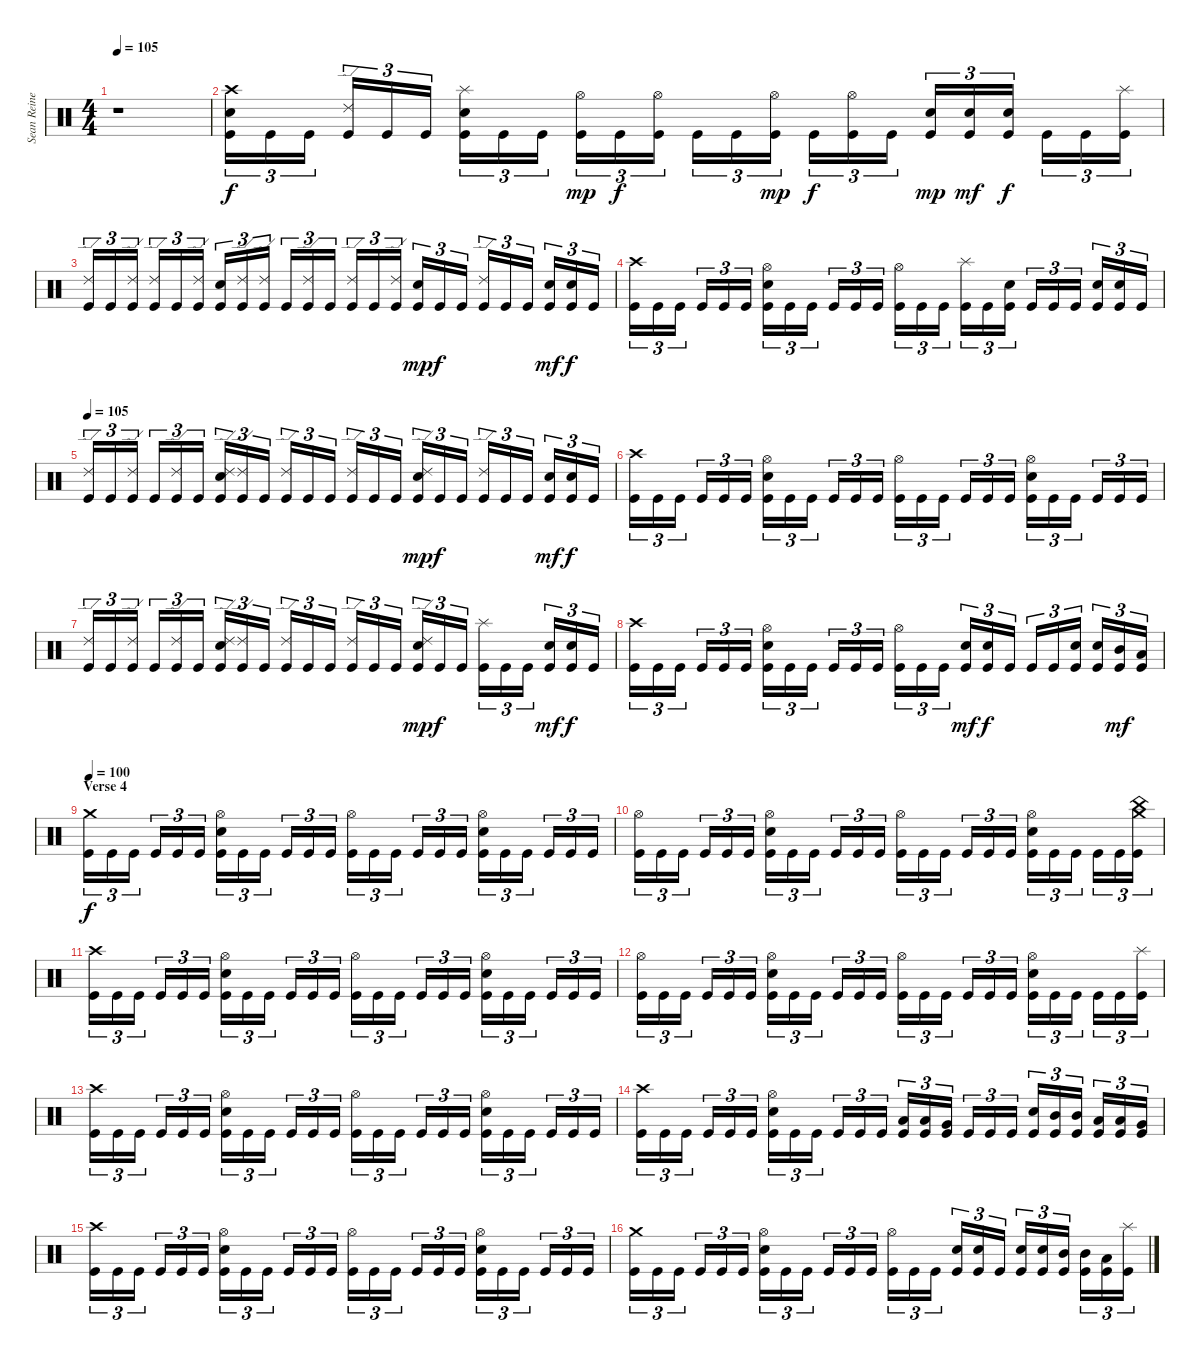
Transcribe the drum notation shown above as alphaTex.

\track ("Sean Reinert " "Sean Reine") {instrument percussion}
\staff {score}
\articulation defaults
\ts (4 4)
\tempo 105
\clef neutral
\ks c
r.1{dy f} |
("Crash high (hit)" "Electric Snare (hit)" "Kick (hit)").16{tu (3 2)} "Kick (hit)".16{tu (3 2)} "Kick (hit)".16{tu (3 2)} ("Ride (edge) 2" "Kick (hit)").16{tu (3 2)} "Kick (hit)".16{tu (3 2)} "Kick (hit)".16{tu (3 2)} ("Splash (hit)" "Electric Snare (hit)" "Kick (hit)").16{tu (3 2)} "Kick (hit)".16{tu (3 2)} "Kick (hit)".16{tu (3 2)} ("Hi-Hat (open)" "Kick (hit)").16{tu (3 2) dy mp} "Kick (hit)".16{tu (3 2) dy f} ("Hi-Hat (open)" "Kick (hit)").16{tu (3 2)} "Kick (hit)".16{tu (3 2)} "Kick (hit)".16{tu (3 2)} ("Hi-Hat (open)" "Kick (hit)").16{tu (3 2) dy mp} "Kick (hit)".16{tu (3 2) dy f} ("Hi-Hat (open)" "Kick (hit)").16{tu (3 2)} "Kick (hit)".16{tu (3 2)} ("Electric Snare (hit)" "Kick (hit)").16{tu (3 2) dy mp} ("Electric Snare (hit)" "Kick (hit)").16{tu (3 2) dy mf} ("Electric Snare (hit)" "Kick (hit)").16{tu (3 2) dy f} "Kick (hit)".16{tu (3 2)} "Kick (hit)".16{tu (3 2)} ("Splash (hit)" "Kick (hit)").16{tu (3 2)} |
("Ride (edge) 2" "Kick (hit)").16{tu (3 2)} "Kick (hit)".16{tu (3 2)} ("Ride (edge) 2" "Kick (hit)").16{tu (3 2)} ("Ride (edge) 2" "Kick (hit)").16{tu (3 2)} "Kick (hit)".16{tu (3 2)} ("Ride (edge) 2" "Kick (hit)").16{tu (3 2)} ("Electric Snare (hit)" "Kick (hit)").16{tu (3 2)} ("Ride (edge) 2" "Kick (hit)").16{tu (3 2)} ("Ride (edge) 2" "Kick (hit)").16{tu (3 2)} "Kick (hit)".16{tu (3 2)} ("Ride (edge) 2" "Kick (hit)").16{tu (3 2)} "Kick (hit)".16{tu (3 2)} ("Ride (edge) 2" "Kick (hit)").16{tu (3 2)} "Kick (hit)".16{tu (3 2)} ("Ride (edge) 2" "Kick (hit)").16{tu (3 2)} ("Electric Snare (hit)" "Kick (hit)").16{tu (3 2) dy mp} "Kick (hit)".16{tu (3 2) dy f} "Kick (hit)".16{tu (3 2)} ("Ride (edge) 2" "Kick (hit)").16{tu (3 2)} "Kick (hit)".16{tu (3 2)} "Kick (hit)".16{tu (3 2)} ("Electric Snare (hit)" "Kick (hit)").16{tu (3 2) dy mf} ("Electric Snare (hit)" "Kick (hit)").16{tu (3 2) dy f} "Kick (hit)".16{tu (3 2)} |
("Crash high (hit)" "Kick (hit)").16{tu (3 2)} "Kick (hit)".16{tu (3 2)} "Kick (hit)".16{tu (3 2)} "Kick (hit)".16{tu (3 2)} "Kick (hit)".16{tu (3 2)} "Kick (hit)".16{tu (3 2)} ("Hi-Hat (open)" "Electric Snare (hit)" "Kick (hit)").16{tu (3 2)} "Kick (hit)".16{tu (3 2)} "Kick (hit)".16{tu (3 2)} "Kick (hit)".16{tu (3 2)} "Kick (hit)".16{tu (3 2)} "Kick (hit)".16{tu (3 2)} ("Hi-Hat (open)" "Kick (hit)").16{tu (3 2)} "Kick (hit)".16{tu (3 2)} "Kick (hit)".16{tu (3 2)} ("Splash (hit)" "Kick (hit)").16{tu (3 2)} "Kick (hit)".16{tu (3 2)} ("Electric Snare (hit)" "Kick (hit)").16{tu (3 2)} "Kick (hit)".16{tu (3 2)} "Kick (hit)".16{tu (3 2)} "Kick (hit)".16{tu (3 2)} ("Electric Snare (hit)" "Kick (hit)").16{tu (3 2)} ("Electric Snare (hit)" "Kick (hit)").16{tu (3 2)} "Kick (hit)".16{tu (3 2)} |
\tempo 105
("Ride (edge) 2" "Kick (hit)").16{tu (3 2)} "Kick (hit)".16{tu (3 2)} ("Ride (edge) 2" "Kick (hit)").16{tu (3 2)} "Kick (hit)".16{tu (3 2)} ("Ride (edge) 2" "Kick (hit)").16{tu (3 2)} "Kick (hit)".16{tu (3 2)} ("Ride (edge) 2" "Electric Snare (hit)" "Kick (hit)").16{tu (3 2)} ("Ride (edge) 2" "Kick (hit)").16{tu (3 2)} "Kick (hit)".16{tu (3 2)} ("Ride (edge) 2" "Kick (hit)").16{tu (3 2)} "Kick (hit)".16{tu (3 2)} "Kick (hit)".16{tu (3 2)} ("Ride (edge) 2" "Kick (hit)").16{tu (3 2)} "Kick (hit)".16{tu (3 2)} "Kick (hit)".16{tu (3 2)} ("Ride (edge) 2" "Electric Snare (hit)" "Kick (hit)").16{tu (3 2) dy mp} "Kick (hit)".16{tu (3 2) dy f} "Kick (hit)".16{tu (3 2)} ("Ride (edge) 2" "Kick (hit)").16{tu (3 2)} "Kick (hit)".16{tu (3 2)} "Kick (hit)".16{tu (3 2)} ("Electric Snare (hit)" "Kick (hit)").16{tu (3 2) dy mf} ("Electric Snare (hit)" "Kick (hit)").16{tu (3 2) dy f} "Kick (hit)".16{tu (3 2)} |
("Crash high (hit)" "Kick (hit)").16{tu (3 2)} "Kick (hit)".16{tu (3 2)} "Kick (hit)".16{tu (3 2)} "Kick (hit)".16{tu (3 2)} "Kick (hit)".16{tu (3 2)} "Kick (hit)".16{tu (3 2)} ("Hi-Hat (open)" "Electric Snare (hit)" "Kick (hit)").16{tu (3 2)} "Kick (hit)".16{tu (3 2)} "Kick (hit)".16{tu (3 2)} "Kick (hit)".16{tu (3 2)} "Kick (hit)".16{tu (3 2)} "Kick (hit)".16{tu (3 2)} ("Hi-Hat (open)" "Kick (hit)").16{tu (3 2)} "Kick (hit)".16{tu (3 2)} "Kick (hit)".16{tu (3 2)} "Kick (hit)".16{tu (3 2)} "Kick (hit)".16{tu (3 2)} "Kick (hit)".16{tu (3 2)} ("Hi-Hat (open)" "Electric Snare (hit)" "Kick (hit)").16{tu (3 2)} "Kick (hit)".16{tu (3 2)} "Kick (hit)".16{tu (3 2)} "Kick (hit)".16{tu (3 2)} "Kick (hit)".16{tu (3 2)} "Kick (hit)".16{tu (3 2)} |
("Ride (edge) 2" "Kick (hit)").16{tu (3 2)} "Kick (hit)".16{tu (3 2)} ("Ride (edge) 2" "Kick (hit)").16{tu (3 2)} "Kick (hit)".16{tu (3 2)} ("Ride (edge) 2" "Kick (hit)").16{tu (3 2)} "Kick (hit)".16{tu (3 2)} ("Ride (edge) 2" "Electric Snare (hit)" "Kick (hit)").16{tu (3 2)} ("Ride (edge) 2" "Kick (hit)").16{tu (3 2)} "Kick (hit)".16{tu (3 2)} ("Ride (edge) 2" "Kick (hit)").16{tu (3 2)} "Kick (hit)".16{tu (3 2)} "Kick (hit)".16{tu (3 2)} ("Ride (edge) 2" "Kick (hit)").16{tu (3 2)} "Kick (hit)".16{tu (3 2)} "Kick (hit)".16{tu (3 2)} ("Ride (edge) 2" "Electric Snare (hit)" "Kick (hit)").16{tu (3 2) dy mp} "Kick (hit)".16{tu (3 2) dy f} "Kick (hit)".16{tu (3 2)} ("Splash (hit)" "Kick (hit)").16{tu (3 2)} "Kick (hit)".16{tu (3 2)} "Kick (hit)".16{tu (3 2)} ("Electric Snare (hit)" "Kick (hit)").16{tu (3 2) dy mf} ("Electric Snare (hit)" "Kick (hit)").16{tu (3 2) dy f} "Kick (hit)".16{tu (3 2)} |
("Crash high (hit)" "Kick (hit)").16{tu (3 2)} "Kick (hit)".16{tu (3 2)} "Kick (hit)".16{tu (3 2)} "Kick (hit)".16{tu (3 2)} "Kick (hit)".16{tu (3 2)} "Kick (hit)".16{tu (3 2)} ("Hi-Hat (open)" "Electric Snare (hit)" "Kick (hit)").16{tu (3 2)} "Kick (hit)".16{tu (3 2)} "Kick (hit)".16{tu (3 2)} "Kick (hit)".16{tu (3 2)} "Kick (hit)".16{tu (3 2)} "Kick (hit)".16{tu (3 2)} ("Hi-Hat (open)" "Kick (hit)").16{tu (3 2)} "Kick (hit)".16{tu (3 2)} "Kick (hit)".16{tu (3 2)} ("Electric Snare (hit)" "Kick (hit)").16{tu (3 2) dy mf} ("Electric Snare (hit)" "Kick (hit)").16{tu (3 2) dy f} "Kick (hit)".16{tu (3 2)} "Kick (hit)".16{tu (3 2)} "Kick (hit)".16{tu (3 2)} ("Electric Snare (hit)" "Kick (hit)").16{tu (3 2)} ("Electric Snare (hit)" "Kick (hit)").16{tu (3 2)} ("Mid Tom (hit)" "Kick (hit)").16{tu (3 2) dy mf} ("Low Tom (hit)" "Kick (hit)").16{tu (3 2)} |
\section ("" "Verse 4")
\tempo 100
("Crash medium (hit)" "Kick (hit)").16{tu (3 2) dy f} "Kick (hit)".16{tu (3 2)} "Kick (hit)".16{tu (3 2)} "Kick (hit)".16{tu (3 2)} "Kick (hit)".16{tu (3 2)} "Kick (hit)".16{tu (3 2)} ("Hi-Hat (open)" "Electric Snare (hit)" "Kick (hit)").16{tu (3 2)} "Kick (hit)".16{tu (3 2)} "Kick (hit)".16{tu (3 2)} "Kick (hit)".16{tu (3 2)} "Kick (hit)".16{tu (3 2)} "Kick (hit)".16{tu (3 2)} ("Hi-Hat (open)" "Kick (hit)").16{tu (3 2)} "Kick (hit)".16{tu (3 2)} "Kick (hit)".16{tu (3 2)} "Kick (hit)".16{tu (3 2)} "Kick (hit)".16{tu (3 2)} "Kick (hit)".16{tu (3 2)} ("Hi-Hat (open)" "Electric Snare (hit)" "Kick (hit)").16{tu (3 2)} "Kick (hit)".16{tu (3 2)} "Kick (hit)".16{tu (3 2)} "Kick (hit)".16{tu (3 2)} "Kick (hit)".16{tu (3 2)} "Kick (hit)".16{tu (3 2)} |
("Hi-Hat (open)" "Kick (hit)").16{tu (3 2)} "Kick (hit)".16{tu (3 2)} "Kick (hit)".16{tu (3 2)} "Kick (hit)".16{tu (3 2)} "Kick (hit)".16{tu (3 2)} "Kick (hit)".16{tu (3 2)} ("Hi-Hat (open)" "Electric Snare (hit)" "Kick (hit)").16{tu (3 2)} "Kick (hit)".16{tu (3 2)} "Kick (hit)".16{tu (3 2)} "Kick (hit)".16{tu (3 2)} "Kick (hit)".16{tu (3 2)} "Kick (hit)".16{tu (3 2)} ("Hi-Hat (open)" "Kick (hit)").16{tu (3 2)} "Kick (hit)".16{tu (3 2)} "Kick (hit)".16{tu (3 2)} "Kick (hit)".16{tu (3 2)} "Kick (hit)".16{tu (3 2)} "Kick (hit)".16{tu (3 2)} ("Hi-Hat (open)" "Electric Snare (hit)" "Kick (hit)").16{tu (3 2)} "Kick (hit)".16{tu (3 2)} "Kick (hit)".16{tu (3 2)} "Kick (hit)".16{tu (3 2)} "Kick (hit)".16{tu (3 2)} ("Crash medium (hit)" "China (hit)" "Kick (hit)").16{tu (3 2)} |
("Crash high (hit)" "Kick (hit)").16{tu (3 2)} "Kick (hit)".16{tu (3 2)} "Kick (hit)".16{tu (3 2)} "Kick (hit)".16{tu (3 2)} "Kick (hit)".16{tu (3 2)} "Kick (hit)".16{tu (3 2)} ("Hi-Hat (open)" "Electric Snare (hit)" "Kick (hit)").16{tu (3 2)} "Kick (hit)".16{tu (3 2)} "Kick (hit)".16{tu (3 2)} "Kick (hit)".16{tu (3 2)} "Kick (hit)".16{tu (3 2)} "Kick (hit)".16{tu (3 2)} ("Hi-Hat (open)" "Kick (hit)").16{tu (3 2)} "Kick (hit)".16{tu (3 2)} "Kick (hit)".16{tu (3 2)} "Kick (hit)".16{tu (3 2)} "Kick (hit)".16{tu (3 2)} "Kick (hit)".16{tu (3 2)} ("Hi-Hat (open)" "Electric Snare (hit)" "Kick (hit)").16{tu (3 2)} "Kick (hit)".16{tu (3 2)} "Kick (hit)".16{tu (3 2)} "Kick (hit)".16{tu (3 2)} "Kick (hit)".16{tu (3 2)} "Kick (hit)".16{tu (3 2)} |
("Hi-Hat (open)" "Kick (hit)").16{tu (3 2)} "Kick (hit)".16{tu (3 2)} "Kick (hit)".16{tu (3 2)} "Kick (hit)".16{tu (3 2)} "Kick (hit)".16{tu (3 2)} "Kick (hit)".16{tu (3 2)} ("Hi-Hat (open)" "Electric Snare (hit)" "Kick (hit)").16{tu (3 2)} "Kick (hit)".16{tu (3 2)} "Kick (hit)".16{tu (3 2)} "Kick (hit)".16{tu (3 2)} "Kick (hit)".16{tu (3 2)} "Kick (hit)".16{tu (3 2)} ("Hi-Hat (open)" "Kick (hit)").16{tu (3 2)} "Kick (hit)".16{tu (3 2)} "Kick (hit)".16{tu (3 2)} "Kick (hit)".16{tu (3 2)} "Kick (hit)".16{tu (3 2)} "Kick (hit)".16{tu (3 2)} ("Hi-Hat (open)" "Electric Snare (hit)" "Kick (hit)").16{tu (3 2)} "Kick (hit)".16{tu (3 2)} "Kick (hit)".16{tu (3 2)} "Kick (hit)".16{tu (3 2)} "Kick (hit)".16{tu (3 2)} ("Splash (hit)" "Kick (hit)").16{tu (3 2)} |
("Crash high (hit)" "Kick (hit)").16{tu (3 2)} "Kick (hit)".16{tu (3 2)} "Kick (hit)".16{tu (3 2)} "Kick (hit)".16{tu (3 2)} "Kick (hit)".16{tu (3 2)} "Kick (hit)".16{tu (3 2)} ("Hi-Hat (open)" "Electric Snare (hit)" "Kick (hit)").16{tu (3 2)} "Kick (hit)".16{tu (3 2)} "Kick (hit)".16{tu (3 2)} "Kick (hit)".16{tu (3 2)} "Kick (hit)".16{tu (3 2)} "Kick (hit)".16{tu (3 2)} ("Hi-Hat (open)" "Kick (hit)").16{tu (3 2)} "Kick (hit)".16{tu (3 2)} "Kick (hit)".16{tu (3 2)} "Kick (hit)".16{tu (3 2)} "Kick (hit)".16{tu (3 2)} "Kick (hit)".16{tu (3 2)} ("Hi-Hat (open)" "Electric Snare (hit)" "Kick (hit)").16{tu (3 2)} "Kick (hit)".16{tu (3 2)} "Kick (hit)".16{tu (3 2)} "Kick (hit)".16{tu (3 2)} "Kick (hit)".16{tu (3 2)} "Kick (hit)".16{tu (3 2)} |
("Crash high (hit)" "Kick (hit)").16{tu (3 2)} "Kick (hit)".16{tu (3 2)} "Kick (hit)".16{tu (3 2)} "Kick (hit)".16{tu (3 2)} "Kick (hit)".16{tu (3 2)} "Kick (hit)".16{tu (3 2)} ("Hi-Hat (open)" "Electric Snare (hit)" "Kick (hit)").16{tu (3 2)} "Kick (hit)".16{tu (3 2)} "Kick (hit)".16{tu (3 2)} "Kick (hit)".16{tu (3 2)} "Kick (hit)".16{tu (3 2)} "Kick (hit)".16{tu (3 2)} ("Low Tom (hit)" "Kick (hit)").16{tu (3 2)} ("Low Tom (hit)" "Kick (hit)").16{tu (3 2)} ("Very Low Tom (hit)" "Kick (hit)").16{tu (3 2)} "Kick (hit)".16{tu (3 2)} "Kick (hit)".16{tu (3 2)} "Kick (hit)".16{tu (3 2)} ("Electric Snare (hit)" "Kick (hit)").16{tu (3 2)} ("Mid Tom (hit)" "Kick (hit)").16{tu (3 2)} ("Mid Tom (hit)" "Kick (hit)").16{tu (3 2)} ("Low Tom (hit)" "Kick (hit)").16{tu (3 2)} ("Low Tom (hit)" "Kick (hit)").16{tu (3 2)} ("Very Low Tom (hit)" "Kick (hit)").16{tu (3 2)} |
("Crash high (hit)" "Kick (hit)").16{tu (3 2)} "Kick (hit)".16{tu (3 2)} "Kick (hit)".16{tu (3 2)} "Kick (hit)".16{tu (3 2)} "Kick (hit)".16{tu (3 2)} "Kick (hit)".16{tu (3 2)} ("Hi-Hat (open)" "Electric Snare (hit)" "Kick (hit)").16{tu (3 2)} "Kick (hit)".16{tu (3 2)} "Kick (hit)".16{tu (3 2)} "Kick (hit)".16{tu (3 2)} "Kick (hit)".16{tu (3 2)} "Kick (hit)".16{tu (3 2)} ("Hi-Hat (open)" "Kick (hit)").16{tu (3 2)} "Kick (hit)".16{tu (3 2)} "Kick (hit)".16{tu (3 2)} "Kick (hit)".16{tu (3 2)} "Kick (hit)".16{tu (3 2)} "Kick (hit)".16{tu (3 2)} ("Hi-Hat (open)" "Electric Snare (hit)" "Kick (hit)").16{tu (3 2)} "Kick (hit)".16{tu (3 2)} "Kick (hit)".16{tu (3 2)} "Kick (hit)".16{tu (3 2)} "Kick (hit)".16{tu (3 2)} "Kick (hit)".16{tu (3 2)} |
("Crash medium (hit)" "Kick (hit)").16{tu (3 2)} "Kick (hit)".16{tu (3 2)} "Kick (hit)".16{tu (3 2)} "Kick (hit)".16{tu (3 2)} "Kick (hit)".16{tu (3 2)} "Kick (hit)".16{tu (3 2)} ("Hi-Hat (open)" "Electric Snare (hit)" "Kick (hit)").16{tu (3 2)} "Kick (hit)".16{tu (3 2)} "Kick (hit)".16{tu (3 2)} "Kick (hit)".16{tu (3 2)} "Kick (hit)".16{tu (3 2)} "Kick (hit)".16{tu (3 2)} ("Hi-Hat (open)" "Kick (hit)").16{tu (3 2)} "Kick (hit)".16{tu (3 2)} "Kick (hit)".16{tu (3 2)} ("Electric Snare (hit)" "Kick (hit)").16{tu (3 2)} ("Electric Snare (hit)" "Kick (hit)").16{tu (3 2)} "Kick (hit)".16{tu (3 2)} ("Electric Snare (hit)" "Kick (hit)").16{tu (3 2)} ("Electric Snare (hit)" "Kick (hit)").16{tu (3 2)} ("Mid Tom (hit)" "Kick (hit)").16{tu (3 2)} ("Mid Tom (hit)" "Kick (hit)").16{tu (3 2)} ("Low Tom (hit)" "Kick (hit)").16{tu (3 2)} ("Splash (hit)" "Kick (hit)").16{tu (3 2)}
